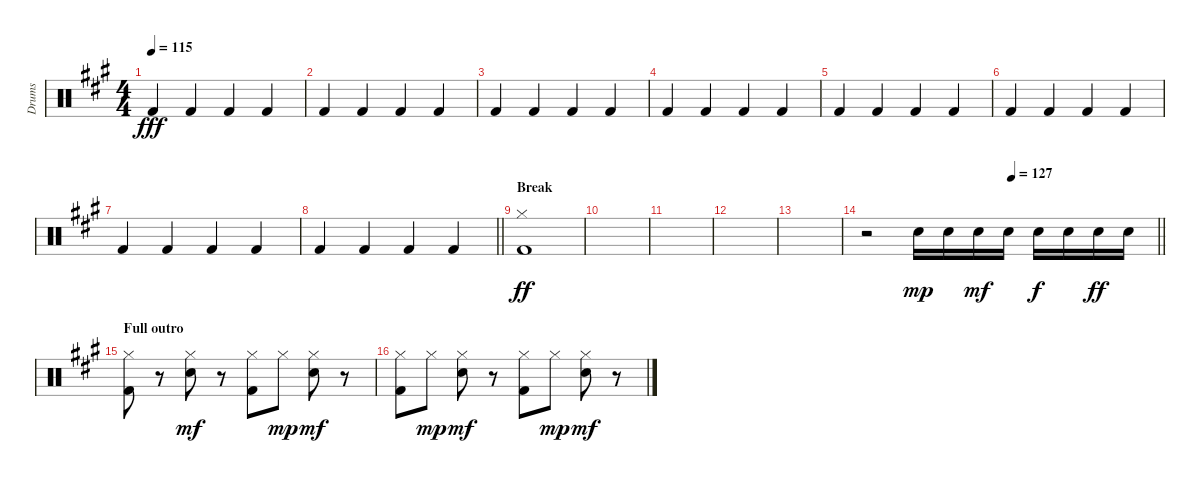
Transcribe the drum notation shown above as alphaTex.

\track ("Drums" "Drums") {instrument percussion}
\staff {score}
\articulation defaults
\ts (4 4)
\tempo 115
\clef neutral
\ks a "Kick (hit) 2".4{dy fff} "Kick (hit) 2".4 "Kick (hit) 2".4 "Kick (hit) 2".4
|
"Kick (hit) 2".4 "Kick (hit) 2".4 "Kick (hit) 2".4 "Kick (hit) 2".4 |
"Kick (hit) 2".4 "Kick (hit) 2".4 "Kick (hit) 2".4 "Kick (hit) 2".4 |
"Kick (hit) 2".4 "Kick (hit) 2".4 "Kick (hit) 2".4 "Kick (hit) 2".4 |
"Kick (hit) 2".4 "Kick (hit) 2".4 "Kick (hit) 2".4 "Kick (hit) 2".4 |
"Kick (hit) 2".4 "Kick (hit) 2".4 "Kick (hit) 2".4 "Kick (hit) 2".4 |
"Kick (hit) 2".4 "Kick (hit) 2".4 "Kick (hit) 2".4 "Kick (hit) 2".4 |
\barLineRight lightlight "Kick (hit) 2".4 "Kick (hit) 2".4 "Kick (hit) 2".4 "Kick (hit) 2".4
|
\section ("" "Break")
("Hi-Hat (closed)" "Kick (hit) 2").1{dy ff} |
|
|
|
|
\tempo (127 0.5)
\barLineRight lightlight
r.2 "Snare (hit) 2".16{dy mp} "Snare (hit) 2".16 "Snare (hit) 2".16{dy mf} "Snare (hit) 2".16 "Snare (hit) 2".16{dy f} "Snare (hit) 2".16 "Snare (hit) 2".16{dy ff} "Snare (hit) 2".16 |
\section ("" "Full outro")
("Hi-Hat (closed)" "Kick (hit) 2").8 r.8 ("Hi-Hat (closed)" "Snare (hit) 2").8{dy mf} r.8 ("Hi-Hat (closed)" "Kick (hit) 2").8 "Hi-Hat (closed)".8{dy mp} ("Hi-Hat (closed)" "Snare (hit) 2").8{dy mf} r.8 |
("Hi-Hat (closed)" "Kick (hit) 2").8 "Hi-Hat (closed)".8{dy mp} ("Hi-Hat (closed)" "Snare (hit) 2").8{dy mf} r.8 ("Hi-Hat (closed)" "Kick (hit) 2").8 "Hi-Hat (closed)".8{dy mp} ("Hi-Hat (closed)" "Snare (hit) 2").8{dy mf} r.8
